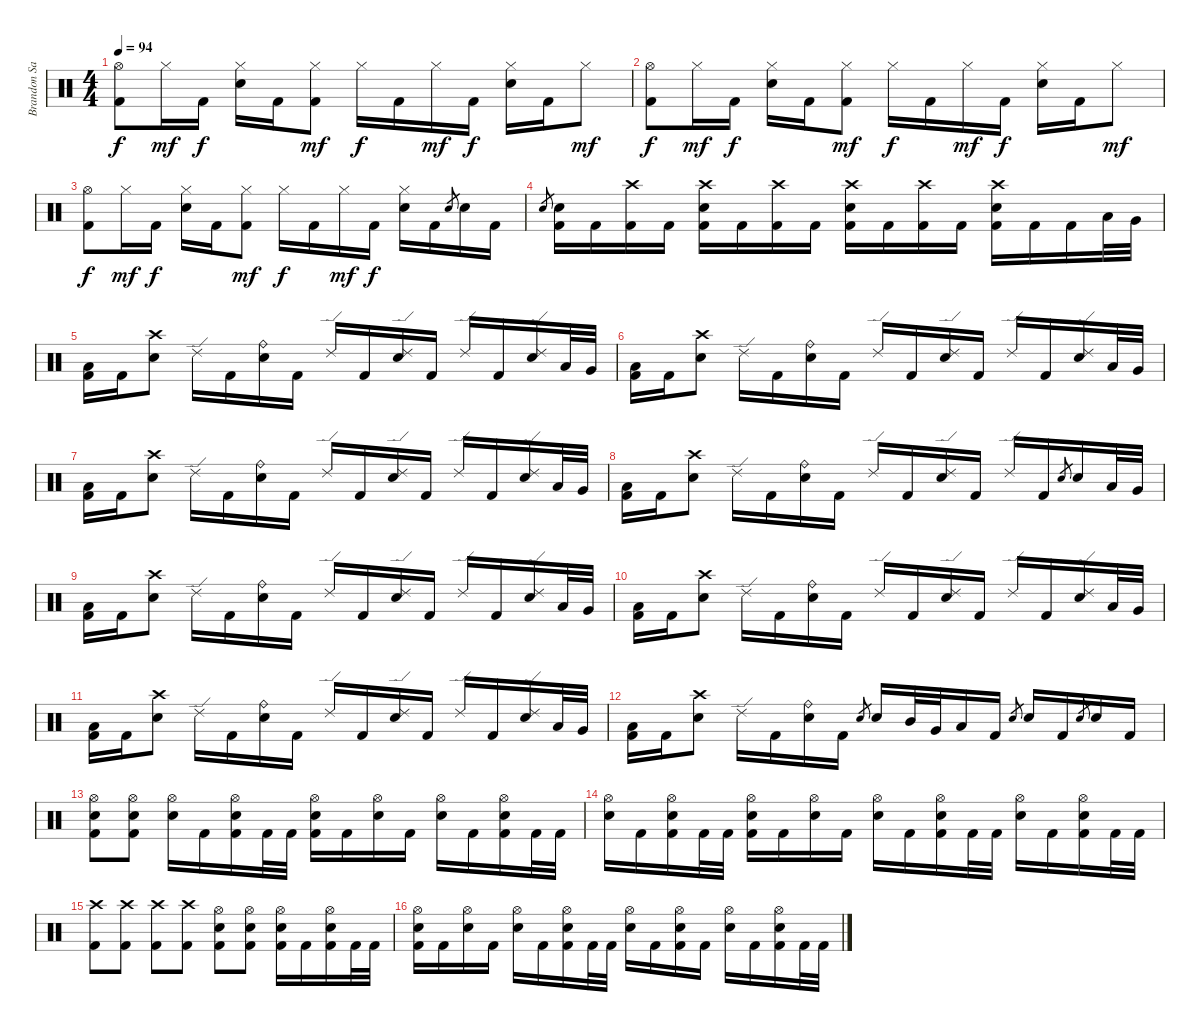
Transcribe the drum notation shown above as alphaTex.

\track ("Brandon Saller  (drums)" "Brandon Sa") {instrument percussion}
\staff {score}
\articulation defaults
\ts (4 4)
\tempo 94
\clef neutral
\ks c
("Hi-Hat (open)" "Kick (hit) 2").8{dy f} "Hi-Hat (closed)".16{dy mf} "Kick (hit) 2".16{dy f} ("Hi-Hat (closed)" "Electric Snare (hit)").16 "Kick (hit) 2".16 ("Hi-Hat (closed)" "Kick (hit) 2").8{dy mf} "Hi-Hat (closed)".16{dy f} "Kick (hit) 2".16 "Hi-Hat (closed)".16{dy mf} "Kick (hit) 2".16{dy f} ("Hi-Hat (closed)" "Electric Snare (hit)").16 "Kick (hit) 2".16 "Hi-Hat (closed)".8{dy mf} |
("Hi-Hat (open)" "Kick (hit) 2").8{dy f} "Hi-Hat (closed)".16{dy mf} "Kick (hit) 2".16{dy f} ("Hi-Hat (closed)" "Electric Snare (hit)").16 "Kick (hit) 2".16 ("Hi-Hat (closed)" "Kick (hit) 2").8{dy mf} "Hi-Hat (closed)".16{dy f} "Kick (hit) 2".16 "Hi-Hat (closed)".16{dy mf} "Kick (hit) 2".16{dy f} ("Hi-Hat (closed)" "Electric Snare (hit)").16 "Kick (hit) 2".16 "Hi-Hat (closed)".8{dy mf} |
("Hi-Hat (open)" "Kick (hit) 2").8{dy f} "Hi-Hat (closed)".16{dy mf} "Kick (hit) 2".16{dy f} ("Hi-Hat (closed)" "Electric Snare (hit)").16 "Kick (hit) 2".16 ("Hi-Hat (closed)" "Kick (hit) 2").8{dy mf} "Hi-Hat (closed)".16{dy f} "Kick (hit) 2".16 "Hi-Hat (closed)".16{dy mf} "Kick (hit) 2".16{dy f} ("Hi-Hat (closed)" "Electric Snare (hit)").16 "Kick (hit) 2".16 "Electric Snare (hit)".8{gr} "Electric Snare (hit)".16 "Kick (hit) 2".16 |
"Electric Snare (hit)".8{gr} ("Electric Snare (hit)" "Kick (hit) 2").16 "Kick (hit) 2".16 ("Crash high (hit)" "Kick (hit) 2").16 "Kick (hit) 2".16 ("Crash high (hit)" "Electric Snare (hit)" "Kick (hit) 2").16 "Kick (hit) 2".16 ("Crash high (hit)" "Kick (hit) 2").16 "Kick (hit) 2".16 ("Crash high (hit)" "Electric Snare (hit)" "Kick (hit) 2").16 "Kick (hit) 2".16 ("Crash high (hit)" "Kick (hit) 2").16 "Kick (hit) 2".16 ("Crash high (hit)" "Electric Snare (hit)" "Kick (hit) 2").16 "Kick (hit) 2".16 "Kick (hit) 2".16 "Low Tom (hit)".32 "Very Low Tom (hit)".32 |
("Low Floor Tom (hit)" "Kick (hit) 2").16 "Kick (hit) 2".16 ("Crash high (hit)" "Electric Snare (hit)").8 "Ride (edge) 2".16 "Kick (hit) 2".16 ("Ride (bell)" "Electric Snare (hit)").16 "Kick (hit) 2".16 "Ride (edge) 2".16 "Kick (hit) 2".16 ("Ride (edge) 2" "Electric Snare (hit)").16 "Kick (hit) 2".16 "Ride (edge) 2".16 "Kick (hit) 2".16 ("Ride (edge) 2" "Electric Snare (hit)").16 "Low Tom (hit)".32 "Very Low Tom (hit)".32 |
("Low Floor Tom (hit)" "Kick (hit) 2").16 "Kick (hit) 2".16 ("Crash high (hit)" "Electric Snare (hit)").8 "Ride (edge) 2".16 "Kick (hit) 2".16 ("Ride (bell)" "Electric Snare (hit)").16 "Kick (hit) 2".16 "Ride (edge) 2".16 "Kick (hit) 2".16 ("Ride (edge) 2" "Electric Snare (hit)").16 "Kick (hit) 2".16 "Ride (edge) 2".16 "Kick (hit) 2".16 ("Ride (edge) 2" "Electric Snare (hit)").16 "Low Tom (hit)".32 "Very Low Tom (hit)".32 |
("Low Floor Tom (hit)" "Kick (hit) 2").16 "Kick (hit) 2".16 ("Crash high (hit)" "Electric Snare (hit)").8 "Ride (edge) 2".16 "Kick (hit) 2".16 ("Ride (bell)" "Electric Snare (hit)").16 "Kick (hit) 2".16 "Ride (edge) 2".16 "Kick (hit) 2".16 ("Ride (edge) 2" "Electric Snare (hit)").16 "Kick (hit) 2".16 "Ride (edge) 2".16 "Kick (hit) 2".16 ("Ride (edge) 2" "Electric Snare (hit)").16 "Low Tom (hit)".32 "Very Low Tom (hit)".32 |
("Low Floor Tom (hit)" "Kick (hit) 2").16 "Kick (hit) 2".16 ("Crash high (hit)" "Electric Snare (hit)").8 "Ride (edge) 2".16 "Kick (hit) 2".16 ("Ride (bell)" "Electric Snare (hit)").16 "Kick (hit) 2".16 "Ride (edge) 2".16 "Kick (hit) 2".16 ("Ride (edge) 2" "Electric Snare (hit)").16 "Kick (hit) 2".16 "Ride (edge) 2".16 "Kick (hit) 2".16 "Electric Snare (hit)".8{gr} "Electric Snare (hit)".16 "Low Tom (hit)".32 "Very Low Tom (hit)".32 |
("Low Floor Tom (hit)" "Kick (hit) 2").16 "Kick (hit) 2".16 ("Crash high (hit)" "Electric Snare (hit)").8 "Ride (edge) 2".16 "Kick (hit) 2".16 ("Ride (bell)" "Electric Snare (hit)").16 "Kick (hit) 2".16 "Ride (edge) 2".16 "Kick (hit) 2".16 ("Ride (edge) 2" "Electric Snare (hit)").16 "Kick (hit) 2".16 "Ride (edge) 2".16 "Kick (hit) 2".16 ("Ride (edge) 2" "Electric Snare (hit)").16 "Low Tom (hit)".32 "Very Low Tom (hit)".32 |
("Low Floor Tom (hit)" "Kick (hit) 2").16 "Kick (hit) 2".16 ("Crash high (hit)" "Electric Snare (hit)").8 "Ride (edge) 2".16 "Kick (hit) 2".16 ("Ride (bell)" "Electric Snare (hit)").16 "Kick (hit) 2".16 "Ride (edge) 2".16 "Kick (hit) 2".16 ("Ride (edge) 2" "Electric Snare (hit)").16 "Kick (hit) 2".16 "Ride (edge) 2".16 "Kick (hit) 2".16 ("Ride (edge) 2" "Electric Snare (hit)").16 "Low Tom (hit)".32 "Very Low Tom (hit)".32 |
("Low Floor Tom (hit)" "Kick (hit) 2").16 "Kick (hit) 2".16 ("Crash high (hit)" "Electric Snare (hit)").8 "Ride (edge) 2".16 "Kick (hit) 2".16 ("Ride (bell)" "Electric Snare (hit)").16 "Kick (hit) 2".16 "Ride (edge) 2".16 "Kick (hit) 2".16 ("Ride (edge) 2" "Electric Snare (hit)").16 "Kick (hit) 2".16 "Ride (edge) 2".16 "Kick (hit) 2".16 ("Ride (edge) 2" "Electric Snare (hit)").16 "Low Tom (hit)".32 "Very Low Tom (hit)".32 |
("Low Floor Tom (hit)" "Kick (hit) 2").16 "Kick (hit) 2".16 ("Crash high (hit)" "Electric Snare (hit)").8 "Ride (edge) 2".16 "Kick (hit) 2".16 ("Ride (bell)" "Electric Snare (hit)").16 "Kick (hit) 2".16 "Electric Snare (hit)".8{gr} "Electric Snare (hit)".16 "Mid Tom (hit)".32 "Very Low Tom (hit)".32 "Low Tom (hit)".16 "Kick (hit) 2".16 "Electric Snare (hit)".8{gr} "Electric Snare (hit)".16 "Kick (hit) 2".16 "Electric Snare (hit)".8{gr} "Electric Snare (hit)".16 "Kick (hit) 2".16 |
("Hi-Hat (open)" "Electric Snare (hit)" "Kick (hit) 2").8 ("Hi-Hat (open)" "Electric Snare (hit)" "Kick (hit) 2").8 ("Hi-Hat (open)" "Electric Snare (hit)").16 "Kick (hit) 2".16 ("Hi-Hat (open)" "Electric Snare (hit)" "Kick (hit) 2").16 "Kick (hit) 2".32 "Kick (hit) 2".32 ("Hi-Hat (open)" "Electric Snare (hit)" "Kick (hit) 2").16 "Kick (hit) 2".16 ("Hi-Hat (open)" "Electric Snare (hit)").16 "Kick (hit) 2".16 ("Hi-Hat (open)" "Electric Snare (hit)").16 "Kick (hit) 2".16 ("Hi-Hat (open)" "Electric Snare (hit)" "Kick (hit) 2").16 "Kick (hit) 2".32 "Kick (hit) 2".32 |
("Hi-Hat (open)" "Electric Snare (hit)").16 "Kick (hit) 2".16 ("Hi-Hat (open)" "Electric Snare (hit)" "Kick (hit) 2").16 "Kick (hit) 2".32 "Kick (hit) 2".32 ("Hi-Hat (open)" "Electric Snare (hit)" "Kick (hit) 2").16 "Kick (hit) 2".16 ("Hi-Hat (open)" "Electric Snare (hit)").16 "Kick (hit) 2".16 ("Hi-Hat (open)" "Electric Snare (hit)").16 "Kick (hit) 2".16 ("Hi-Hat (open)" "Electric Snare (hit)" "Kick (hit) 2").16 "Kick (hit) 2".32 "Kick (hit) 2".32 ("Hi-Hat (open)" "Electric Snare (hit)").16 "Kick (hit) 2".16 ("Hi-Hat (open)" "Electric Snare (hit)" "Kick (hit) 2").16 "Kick (hit) 2".32 "Kick (hit) 2".32 |
("Crash high (hit)" "Kick (hit) 2").8 ("Crash high (hit)" "Kick (hit) 2").8 ("Crash high (hit)" "Kick (hit) 2").8 ("Crash high (hit)" "Kick (hit) 2").8 ("Hi-Hat (open)" "Electric Snare (hit)" "Kick (hit) 2").8 ("Hi-Hat (open)" "Electric Snare (hit)" "Kick (hit) 2").8 ("Hi-Hat (open)" "Electric Snare (hit)" "Kick (hit) 2").16 "Kick (hit) 2".16 ("Hi-Hat (open)" "Electric Snare (hit)" "Kick (hit) 2").16 "Kick (hit) 2".32 "Kick (hit) 2".32 |
("Hi-Hat (open)" "Electric Snare (hit)" "Kick (hit) 2").16 "Kick (hit) 2".16 ("Hi-Hat (open)" "Electric Snare (hit)").16 "Kick (hit) 2".16 ("Hi-Hat (open)" "Electric Snare (hit)").16 "Kick (hit) 2".16 ("Hi-Hat (open)" "Electric Snare (hit)" "Kick (hit) 2").16 "Kick (hit) 2".32 "Kick (hit) 2".32 ("Hi-Hat (open)" "Electric Snare (hit)").16 "Kick (hit) 2".16 ("Hi-Hat (open)" "Electric Snare (hit)" "Kick (hit) 2").16 "Kick (hit) 2".16 ("Hi-Hat (open)" "Electric Snare (hit)").16 "Kick (hit) 2".16 ("Hi-Hat (open)" "Electric Snare (hit)" "Kick (hit) 2").16 "Kick (hit) 2".32 "Kick (hit) 2".32
